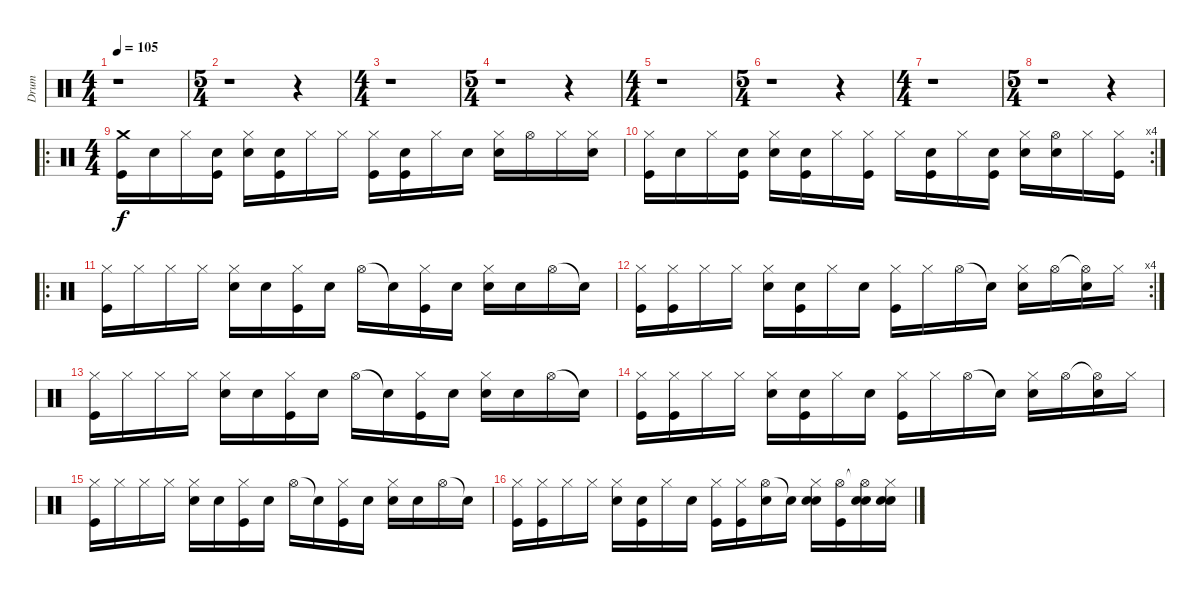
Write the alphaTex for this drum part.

\track ("Drum" "Drum") {instrument percussion}
\staff {score}
\articulation defaults
\ts (4 4)
\tempo 105
\clef neutral
\ks c
r.1{dy f} |
\ts (5 4)
r.1 r.4 |
\ts (4 4)
r.1 |
\ts (5 4)
r.1 r.4 |
\ts (4 4)
r.1 |
\ts (5 4)
r.1 r.4 |
\ts (4 4)
r.1 |
\ts (5 4)
r.1 r.4 |
\ro
\ts (4 4)
("Crash medium (hit)" "Kick (hit)").16 "Snare (hit)".16 "Hi-Hat (closed)".16 ("Snare (hit)" "Kick (hit)").16 ("Hi-Hat (closed)" "Snare (hit) 2").16 ("Snare (hit)" "Kick (hit)").16 "Hi-Hat (closed)".16 "Hi-Hat (closed)".16 ("Hi-Hat (closed)" "Kick (hit)").16 ("Snare (hit)" "Kick (hit)").16 "Hi-Hat (closed)".16 "Snare (hit)".16 ("Hi-Hat (closed)" "Snare (hit) 2").16 "Hi-Hat (open)".16 "Hi-Hat (closed)".16 ("Hi-Hat (closed)" "Snare (hit) 2").16 |
\rc 4
("Hi-Hat (closed)" "Kick (hit)").16 "Snare (hit)".16 "Hi-Hat (closed)".16 ("Snare (hit)" "Kick (hit)").16 ("Hi-Hat (closed)" "Snare (hit) 2").16 ("Snare (hit)" "Kick (hit)").16 "Hi-Hat (closed)".16 ("Hi-Hat (closed)" "Kick (hit)").16 "Hi-Hat (closed)".16 ("Snare (hit)" "Kick (hit)").16 "Hi-Hat (closed)".16 ("Snare (hit)" "Kick (hit)").16 ("Hi-Hat (closed)" "Snare (hit) 2").16 ("Hi-Hat (open)" "Snare (hit) 2").16 "Hi-Hat (closed)".16 ("Hi-Hat (closed)" "Kick (hit)").16 |
\ro
("Hi-Hat (closed)" "Kick (hit)").16 "Hi-Hat (closed)".16 "Hi-Hat (closed)".16 "Hi-Hat (closed)".16 ("Hi-Hat (closed)" "Metronome (bell)").16 "Snare (hit)".16 ("Hi-Hat (closed)" "Kick (hit)").16 "Snare (hit)".16 "Hi-Hat (open)".16 "Snare (hit)"{t}.16 ("Hi-Hat (closed)" "Kick (hit)").16 "Snare (hit)".16 ("Hi-Hat (closed)" "Metronome (bell)").16 "Snare (hit)".16 "Hi-Hat (open)".16 "Snare (hit)"{t}.16 |
\rc 4
("Hi-Hat (closed)" "Kick (hit)").16 ("Hi-Hat (closed)" "Kick (hit)").16 "Hi-Hat (closed)".16 "Hi-Hat (closed)".16 ("Hi-Hat (closed)" "Metronome (bell)").16 ("Snare (hit)" "Kick (hit)").16 "Hi-Hat (closed)".16 "Snare (hit)".16 ("Hi-Hat (closed)" "Kick (hit)").16 "Hi-Hat (closed)".16 "Hi-Hat (open)".16 "Snare (hit)"{t}.16 ("Hi-Hat (closed)" "Metronome (bell)").16 "Hi-Hat (open)".16 ("Hi-Hat (open)"{t} "Metronome (bell)").16 "Hi-Hat (closed)".16 |
("Hi-Hat (closed)" "Kick (hit)").16 "Hi-Hat (closed)".16 "Hi-Hat (closed)".16 "Hi-Hat (closed)".16 ("Hi-Hat (closed)" "Metronome (bell)").16 "Snare (hit)".16 ("Hi-Hat (closed)" "Kick (hit)").16 "Snare (hit)".16 "Hi-Hat (open)".16 "Snare (hit)"{t}.16 ("Hi-Hat (closed)" "Kick (hit)").16 "Snare (hit)".16 ("Hi-Hat (closed)" "Metronome (bell)").16 "Snare (hit)".16 "Hi-Hat (open)".16 "Snare (hit)"{t}.16 |
("Hi-Hat (closed)" "Kick (hit)").16 ("Hi-Hat (closed)" "Kick (hit)").16 "Hi-Hat (closed)".16 "Hi-Hat (closed)".16 ("Hi-Hat (closed)" "Metronome (bell)").16 ("Snare (hit)" "Kick (hit)").16 "Hi-Hat (closed)".16 "Snare (hit)".16 ("Hi-Hat (closed)" "Kick (hit)").16 "Hi-Hat (closed)".16 "Hi-Hat (open)".16 "Snare (hit)"{t}.16 ("Hi-Hat (closed)" "Metronome (bell)").16 "Hi-Hat (open)".16 ("Hi-Hat (open)"{t} "Metronome (bell)").16 "Hi-Hat (closed)".16 |
("Hi-Hat (closed)" "Kick (hit)").16 "Hi-Hat (closed)".16 "Hi-Hat (closed)".16 "Hi-Hat (closed)".16 ("Hi-Hat (closed)" "Metronome (bell)").16 "Snare (hit)".16 ("Hi-Hat (closed)" "Kick (hit)").16 "Snare (hit)".16 "Hi-Hat (open)".16 "Snare (hit)"{t}.16 ("Hi-Hat (closed)" "Kick (hit)").16 "Snare (hit)".16 ("Hi-Hat (closed)" "Metronome (bell)").16 "Snare (hit)".16 "Hi-Hat (open)".16 "Snare (hit)"{t}.16 |
("Hi-Hat (closed)" "Kick (hit)").16 ("Hi-Hat (closed)" "Kick (hit)").16 "Hi-Hat (closed)".16 "Hi-Hat (closed)".16 ("Hi-Hat (closed)" "Metronome (bell)").16 ("Snare (hit)" "Kick (hit)").16 "Hi-Hat (closed)".16 "Snare (hit)".16 ("Hi-Hat (closed)" "Kick (hit)").16 ("Hi-Hat (closed)" "Kick (hit)").16 ("Hi-Hat (open)" "Metronome (bell)").16 "Snare (hit)"{t}.16 ("Hi-Hat (closed)" "Metronome (bell)" "Snare (hit) 2").16 ("Hi-Hat (open)" "Kick (hit)").16 ("Hi-Hat (open)"{t} "Metronome (bell)" "Snare (hit) 2").16 ("Hi-Hat (closed)" "Metronome (bell)" "Snare (hit) 2").16
